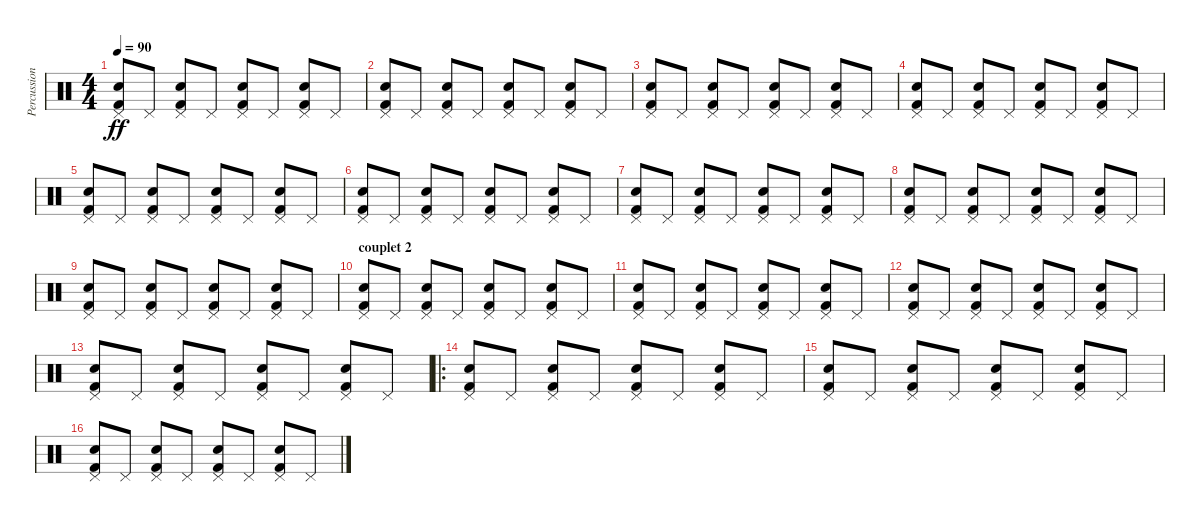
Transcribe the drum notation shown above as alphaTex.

\track ("Percussions" "Percussion") {instrument percussion}
\staff {score}
\articulation defaults
\ts (4 4)
\tempo 90
\clef neutral
\ks c
("Pedal Hi-Hat (hit)" "Electric Snare (hit)" "Kick (hit) 2").8{dy ff} "Pedal Hi-Hat (hit)".8 ("Pedal Hi-Hat (hit)" "Electric Snare (hit)" "Kick (hit) 2").8 "Pedal Hi-Hat (hit)".8 ("Pedal Hi-Hat (hit)" "Electric Snare (hit)" "Kick (hit) 2").8 "Pedal Hi-Hat (hit)".8 ("Pedal Hi-Hat (hit)" "Electric Snare (hit)" "Kick (hit) 2").8 "Pedal Hi-Hat (hit)".8 |
("Pedal Hi-Hat (hit)" "Electric Snare (hit)" "Kick (hit) 2").8 "Pedal Hi-Hat (hit)".8 ("Pedal Hi-Hat (hit)" "Electric Snare (hit)" "Kick (hit) 2").8 "Pedal Hi-Hat (hit)".8 ("Pedal Hi-Hat (hit)" "Electric Snare (hit)" "Kick (hit) 2").8 "Pedal Hi-Hat (hit)".8 ("Pedal Hi-Hat (hit)" "Electric Snare (hit)" "Kick (hit) 2").8 "Pedal Hi-Hat (hit)".8 |
("Pedal Hi-Hat (hit)" "Electric Snare (hit)" "Kick (hit) 2").8 "Pedal Hi-Hat (hit)".8 ("Pedal Hi-Hat (hit)" "Electric Snare (hit)" "Kick (hit) 2").8 "Pedal Hi-Hat (hit)".8 ("Pedal Hi-Hat (hit)" "Electric Snare (hit)" "Kick (hit) 2").8 "Pedal Hi-Hat (hit)".8 ("Pedal Hi-Hat (hit)" "Electric Snare (hit)" "Kick (hit) 2").8 "Pedal Hi-Hat (hit)".8 |
("Pedal Hi-Hat (hit)" "Electric Snare (hit)" "Kick (hit) 2").8 "Pedal Hi-Hat (hit)".8 ("Pedal Hi-Hat (hit)" "Electric Snare (hit)" "Kick (hit) 2").8 "Pedal Hi-Hat (hit)".8 ("Pedal Hi-Hat (hit)" "Electric Snare (hit)" "Kick (hit) 2").8 "Pedal Hi-Hat (hit)".8 ("Pedal Hi-Hat (hit)" "Electric Snare (hit)" "Kick (hit) 2").8 "Pedal Hi-Hat (hit)".8 |
("Pedal Hi-Hat (hit)" "Electric Snare (hit)" "Kick (hit) 2").8 "Pedal Hi-Hat (hit)".8 ("Pedal Hi-Hat (hit)" "Electric Snare (hit)" "Kick (hit) 2").8 "Pedal Hi-Hat (hit)".8 ("Pedal Hi-Hat (hit)" "Electric Snare (hit)" "Kick (hit) 2").8 "Pedal Hi-Hat (hit)".8 ("Pedal Hi-Hat (hit)" "Electric Snare (hit)" "Kick (hit) 2").8 "Pedal Hi-Hat (hit)".8 |
("Pedal Hi-Hat (hit)" "Electric Snare (hit)" "Kick (hit) 2").8 "Pedal Hi-Hat (hit)".8 ("Pedal Hi-Hat (hit)" "Electric Snare (hit)" "Kick (hit) 2").8 "Pedal Hi-Hat (hit)".8 ("Pedal Hi-Hat (hit)" "Electric Snare (hit)" "Kick (hit) 2").8 "Pedal Hi-Hat (hit)".8 ("Pedal Hi-Hat (hit)" "Electric Snare (hit)" "Kick (hit) 2").8 "Pedal Hi-Hat (hit)".8 |
("Pedal Hi-Hat (hit)" "Electric Snare (hit)" "Kick (hit) 2").8 "Pedal Hi-Hat (hit)".8 ("Pedal Hi-Hat (hit)" "Electric Snare (hit)" "Kick (hit) 2").8 "Pedal Hi-Hat (hit)".8 ("Pedal Hi-Hat (hit)" "Electric Snare (hit)" "Kick (hit) 2").8 "Pedal Hi-Hat (hit)".8 ("Pedal Hi-Hat (hit)" "Electric Snare (hit)" "Kick (hit) 2").8 "Pedal Hi-Hat (hit)".8 |
("Pedal Hi-Hat (hit)" "Electric Snare (hit)" "Kick (hit) 2").8 "Pedal Hi-Hat (hit)".8 ("Pedal Hi-Hat (hit)" "Electric Snare (hit)" "Kick (hit) 2").8 "Pedal Hi-Hat (hit)".8 ("Pedal Hi-Hat (hit)" "Electric Snare (hit)" "Kick (hit) 2").8 "Pedal Hi-Hat (hit)".8 ("Pedal Hi-Hat (hit)" "Electric Snare (hit)" "Kick (hit) 2").8 "Pedal Hi-Hat (hit)".8 |
("Pedal Hi-Hat (hit)" "Electric Snare (hit)" "Kick (hit) 2").8 "Pedal Hi-Hat (hit)".8 ("Pedal Hi-Hat (hit)" "Electric Snare (hit)" "Kick (hit) 2").8 "Pedal Hi-Hat (hit)".8 ("Pedal Hi-Hat (hit)" "Electric Snare (hit)" "Kick (hit) 2").8 "Pedal Hi-Hat (hit)".8 ("Pedal Hi-Hat (hit)" "Electric Snare (hit)" "Kick (hit) 2").8 "Pedal Hi-Hat (hit)".8 |
\section ("" "couplet 2")
("Pedal Hi-Hat (hit)" "Electric Snare (hit)" "Kick (hit) 2").8 "Pedal Hi-Hat (hit)".8 ("Pedal Hi-Hat (hit)" "Electric Snare (hit)" "Kick (hit) 2").8 "Pedal Hi-Hat (hit)".8 ("Pedal Hi-Hat (hit)" "Electric Snare (hit)" "Kick (hit) 2").8 "Pedal Hi-Hat (hit)".8 ("Pedal Hi-Hat (hit)" "Electric Snare (hit)" "Kick (hit) 2").8 "Pedal Hi-Hat (hit)".8 |
("Pedal Hi-Hat (hit)" "Electric Snare (hit)" "Kick (hit) 2").8 "Pedal Hi-Hat (hit)".8 ("Pedal Hi-Hat (hit)" "Electric Snare (hit)" "Kick (hit) 2").8 "Pedal Hi-Hat (hit)".8 ("Pedal Hi-Hat (hit)" "Electric Snare (hit)" "Kick (hit) 2").8 "Pedal Hi-Hat (hit)".8 ("Pedal Hi-Hat (hit)" "Electric Snare (hit)" "Kick (hit) 2").8 "Pedal Hi-Hat (hit)".8 |
("Pedal Hi-Hat (hit)" "Electric Snare (hit)" "Kick (hit) 2").8 "Pedal Hi-Hat (hit)".8 ("Pedal Hi-Hat (hit)" "Electric Snare (hit)" "Kick (hit) 2").8 "Pedal Hi-Hat (hit)".8 ("Pedal Hi-Hat (hit)" "Electric Snare (hit)" "Kick (hit) 2").8 "Pedal Hi-Hat (hit)".8 ("Pedal Hi-Hat (hit)" "Electric Snare (hit)" "Kick (hit) 2").8 "Pedal Hi-Hat (hit)".8 |
("Pedal Hi-Hat (hit)" "Electric Snare (hit)" "Kick (hit) 2").8 "Pedal Hi-Hat (hit)".8 ("Pedal Hi-Hat (hit)" "Electric Snare (hit)" "Kick (hit) 2").8 "Pedal Hi-Hat (hit)".8 ("Pedal Hi-Hat (hit)" "Electric Snare (hit)" "Kick (hit) 2").8 "Pedal Hi-Hat (hit)".8 ("Pedal Hi-Hat (hit)" "Electric Snare (hit)" "Kick (hit) 2").8 "Pedal Hi-Hat (hit)".8 |
\ro
("Pedal Hi-Hat (hit)" "Electric Snare (hit)" "Kick (hit) 2").8 "Pedal Hi-Hat (hit)".8 ("Pedal Hi-Hat (hit)" "Electric Snare (hit)" "Kick (hit) 2").8 "Pedal Hi-Hat (hit)".8 ("Pedal Hi-Hat (hit)" "Electric Snare (hit)" "Kick (hit) 2").8 "Pedal Hi-Hat (hit)".8 ("Pedal Hi-Hat (hit)" "Electric Snare (hit)" "Kick (hit) 2").8 "Pedal Hi-Hat (hit)".8 |
("Pedal Hi-Hat (hit)" "Electric Snare (hit)" "Kick (hit) 2").8 "Pedal Hi-Hat (hit)".8 ("Pedal Hi-Hat (hit)" "Electric Snare (hit)" "Kick (hit) 2").8 "Pedal Hi-Hat (hit)".8 ("Pedal Hi-Hat (hit)" "Electric Snare (hit)" "Kick (hit) 2").8 "Pedal Hi-Hat (hit)".8 ("Pedal Hi-Hat (hit)" "Electric Snare (hit)" "Kick (hit) 2").8 "Pedal Hi-Hat (hit)".8 |
("Pedal Hi-Hat (hit)" "Electric Snare (hit)" "Kick (hit) 2").8 "Pedal Hi-Hat (hit)".8 ("Pedal Hi-Hat (hit)" "Electric Snare (hit)" "Kick (hit) 2").8 "Pedal Hi-Hat (hit)".8 ("Pedal Hi-Hat (hit)" "Electric Snare (hit)" "Kick (hit) 2").8 "Pedal Hi-Hat (hit)".8 ("Pedal Hi-Hat (hit)" "Electric Snare (hit)" "Kick (hit) 2").8 "Pedal Hi-Hat (hit)".8
